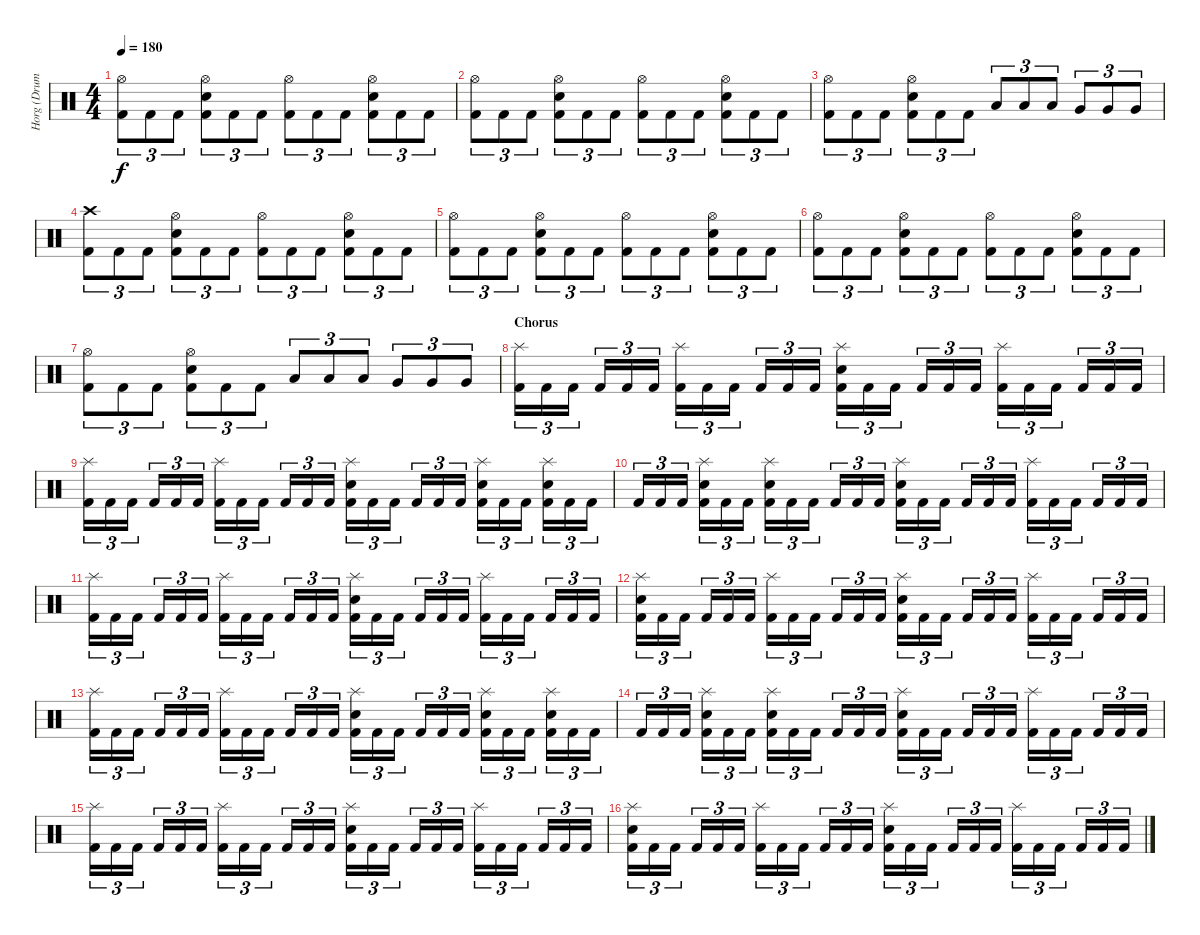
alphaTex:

\track ("Horg (Drums)" "Horg (Drum") {instrument percussion}
\staff {score}
\articulation defaults
\ts (4 4)
\tempo 180
\clef neutral
\ks c
("Hi-Hat (open)" "Kick (hit) 2").8{tu (3 2) dy f} "Kick (hit) 2".8{tu (3 2)} "Kick (hit) 2".8{tu (3 2)} ("Hi-Hat (open)" "Electric Snare (hit)" "Kick (hit) 2").8{tu (3 2)} "Kick (hit) 2".8{tu (3 2)} "Kick (hit) 2".8{tu (3 2)} ("Hi-Hat (open)" "Kick (hit) 2").8{tu (3 2)} "Kick (hit) 2".8{tu (3 2)} "Kick (hit) 2".8{tu (3 2)} ("Hi-Hat (open)" "Electric Snare (hit)" "Kick (hit) 2").8{tu (3 2)} "Kick (hit) 2".8{tu (3 2)} "Kick (hit) 2".8{tu (3 2)} |
("Hi-Hat (open)" "Kick (hit) 2").8{tu (3 2)} "Kick (hit) 2".8{tu (3 2)} "Kick (hit) 2".8{tu (3 2)} ("Hi-Hat (open)" "Electric Snare (hit)" "Kick (hit) 2").8{tu (3 2)} "Kick (hit) 2".8{tu (3 2)} "Kick (hit) 2".8{tu (3 2)} ("Hi-Hat (open)" "Kick (hit) 2").8{tu (3 2)} "Kick (hit) 2".8{tu (3 2)} "Kick (hit) 2".8{tu (3 2)} ("Hi-Hat (open)" "Electric Snare (hit)" "Kick (hit) 2").8{tu (3 2)} "Kick (hit) 2".8{tu (3 2)} "Kick (hit) 2".8{tu (3 2)} |
("Hi-Hat (open)" "Kick (hit) 2").8{tu (3 2)} "Kick (hit) 2".8{tu (3 2)} "Kick (hit) 2".8{tu (3 2)} ("Hi-Hat (open)" "Electric Snare (hit)" "Kick (hit) 2").8{tu (3 2)} "Kick (hit) 2".8{tu (3 2)} "Kick (hit) 2".8{tu (3 2)} "Low Tom (hit)".8{tu (3 2)} "Low Tom (hit)".8{tu (3 2)} "Low Tom (hit)".8{tu (3 2)} "Very Low Tom (hit)".8{tu (3 2)} "Very Low Tom (hit)".8{tu (3 2)} "Very Low Tom (hit)".8{tu (3 2)} |
("Crash high (hit)" "Kick (hit) 2").8{tu (3 2)} "Kick (hit) 2".8{tu (3 2)} "Kick (hit) 2".8{tu (3 2)} ("Hi-Hat (open)" "Electric Snare (hit)" "Kick (hit) 2").8{tu (3 2)} "Kick (hit) 2".8{tu (3 2)} "Kick (hit) 2".8{tu (3 2)} ("Hi-Hat (open)" "Kick (hit) 2").8{tu (3 2)} "Kick (hit) 2".8{tu (3 2)} "Kick (hit) 2".8{tu (3 2)} ("Hi-Hat (open)" "Electric Snare (hit)" "Kick (hit) 2").8{tu (3 2)} "Kick (hit) 2".8{tu (3 2)} "Kick (hit) 2".8{tu (3 2)} |
("Hi-Hat (open)" "Kick (hit) 2").8{tu (3 2)} "Kick (hit) 2".8{tu (3 2)} "Kick (hit) 2".8{tu (3 2)} ("Hi-Hat (open)" "Electric Snare (hit)" "Kick (hit) 2").8{tu (3 2)} "Kick (hit) 2".8{tu (3 2)} "Kick (hit) 2".8{tu (3 2)} ("Hi-Hat (open)" "Kick (hit) 2").8{tu (3 2)} "Kick (hit) 2".8{tu (3 2)} "Kick (hit) 2".8{tu (3 2)} ("Hi-Hat (open)" "Electric Snare (hit)" "Kick (hit) 2").8{tu (3 2)} "Kick (hit) 2".8{tu (3 2)} "Kick (hit) 2".8{tu (3 2)} |
("Hi-Hat (open)" "Kick (hit) 2").8{tu (3 2)} "Kick (hit) 2".8{tu (3 2)} "Kick (hit) 2".8{tu (3 2)} ("Hi-Hat (open)" "Electric Snare (hit)" "Kick (hit) 2").8{tu (3 2)} "Kick (hit) 2".8{tu (3 2)} "Kick (hit) 2".8{tu (3 2)} ("Hi-Hat (open)" "Kick (hit) 2").8{tu (3 2)} "Kick (hit) 2".8{tu (3 2)} "Kick (hit) 2".8{tu (3 2)} ("Hi-Hat (open)" "Electric Snare (hit)" "Kick (hit) 2").8{tu (3 2)} "Kick (hit) 2".8{tu (3 2)} "Kick (hit) 2".8{tu (3 2)} |
("Hi-Hat (open)" "Kick (hit) 2").8{tu (3 2)} "Kick (hit) 2".8{tu (3 2)} "Kick (hit) 2".8{tu (3 2)} ("Hi-Hat (open)" "Electric Snare (hit)" "Kick (hit) 2").8{tu (3 2)} "Kick (hit) 2".8{tu (3 2)} "Kick (hit) 2".8{tu (3 2)} "Low Tom (hit)".8{tu (3 2)} "Low Tom (hit)".8{tu (3 2)} "Low Tom (hit)".8{tu (3 2)} "Very Low Tom (hit)".8{tu (3 2)} "Very Low Tom (hit)".8{tu (3 2)} "Very Low Tom (hit)".8{tu (3 2)} |
\section ("" "Chorus")
("Splash (hit)" "Kick (hit) 2").16{tu (3 2)} "Kick (hit) 2".16{tu (3 2)} "Kick (hit) 2".16{tu (3 2)} "Kick (hit) 2".16{tu (3 2)} "Kick (hit) 2".16{tu (3 2)} "Kick (hit) 2".16{tu (3 2)} ("Splash (hit)" "Kick (hit) 2").16{tu (3 2)} "Kick (hit) 2".16{tu (3 2)} "Kick (hit) 2".16{tu (3 2)} "Kick (hit) 2".16{tu (3 2)} "Kick (hit) 2".16{tu (3 2)} "Kick (hit) 2".16{tu (3 2)} ("Splash (hit)" "Electric Snare (hit)" "Kick (hit) 2").16{tu (3 2)} "Kick (hit) 2".16{tu (3 2)} "Kick (hit) 2".16{tu (3 2)} "Kick (hit) 2".16{tu (3 2)} "Kick (hit) 2".16{tu (3 2)} "Kick (hit) 2".16{tu (3 2)} ("Splash (hit)" "Kick (hit) 2").16{tu (3 2)} "Kick (hit) 2".16{tu (3 2)} "Kick (hit) 2".16{tu (3 2)} "Kick (hit) 2".16{tu (3 2)} "Kick (hit) 2".16{tu (3 2)} "Kick (hit) 2".16{tu (3 2)} |
("Splash (hit)" "Kick (hit) 2").16{tu (3 2)} "Kick (hit) 2".16{tu (3 2)} "Kick (hit) 2".16{tu (3 2)} "Kick (hit) 2".16{tu (3 2)} "Kick (hit) 2".16{tu (3 2)} "Kick (hit) 2".16{tu (3 2)} ("Splash (hit)" "Kick (hit) 2").16{tu (3 2)} "Kick (hit) 2".16{tu (3 2)} "Kick (hit) 2".16{tu (3 2)} "Kick (hit) 2".16{tu (3 2)} "Kick (hit) 2".16{tu (3 2)} "Kick (hit) 2".16{tu (3 2)} ("Splash (hit)" "Electric Snare (hit)" "Kick (hit) 2").16{tu (3 2)} "Kick (hit) 2".16{tu (3 2)} "Kick (hit) 2".16{tu (3 2)} "Kick (hit) 2".16{tu (3 2)} "Kick (hit) 2".16{tu (3 2)} "Kick (hit) 2".16{tu (3 2)} ("Splash (hit)" "Electric Snare (hit)" "Kick (hit) 2").16{tu (3 2)} "Kick (hit) 2".16{tu (3 2)} "Kick (hit) 2".16{tu (3 2)} ("Splash (hit)" "Electric Snare (hit)" "Kick (hit) 2").16{tu (3 2)} "Kick (hit) 2".16{tu (3 2)} "Kick (hit) 2".16{tu (3 2)} |
"Kick (hit) 2".16{tu (3 2)} "Kick (hit) 2".16{tu (3 2)} "Kick (hit) 2".16{tu (3 2)} ("Splash (hit)" "Electric Snare (hit)" "Kick (hit) 2").16{tu (3 2)} "Kick (hit) 2".16{tu (3 2)} "Kick (hit) 2".16{tu (3 2)} ("Splash (hit)" "Electric Snare (hit)" "Kick (hit) 2").16{tu (3 2)} "Kick (hit) 2".16{tu (3 2)} "Kick (hit) 2".16{tu (3 2)} "Kick (hit) 2".16{tu (3 2)} "Kick (hit) 2".16{tu (3 2)} "Kick (hit) 2".16{tu (3 2)} ("Splash (hit)" "Electric Snare (hit)" "Kick (hit) 2").16{tu (3 2)} "Kick (hit) 2".16{tu (3 2)} "Kick (hit) 2".16{tu (3 2)} "Kick (hit) 2".16{tu (3 2)} "Kick (hit) 2".16{tu (3 2)} "Kick (hit) 2".16{tu (3 2)} ("Splash (hit)" "Kick (hit) 2").16{tu (3 2)} "Kick (hit) 2".16{tu (3 2)} "Kick (hit) 2".16{tu (3 2)} "Kick (hit) 2".16{tu (3 2)} "Kick (hit) 2".16{tu (3 2)} "Kick (hit) 2".16{tu (3 2)} |
("Splash (hit)" "Kick (hit) 2").16{tu (3 2)} "Kick (hit) 2".16{tu (3 2)} "Kick (hit) 2".16{tu (3 2)} "Kick (hit) 2".16{tu (3 2)} "Kick (hit) 2".16{tu (3 2)} "Kick (hit) 2".16{tu (3 2)} ("Splash (hit)" "Kick (hit) 2").16{tu (3 2)} "Kick (hit) 2".16{tu (3 2)} "Kick (hit) 2".16{tu (3 2)} "Kick (hit) 2".16{tu (3 2)} "Kick (hit) 2".16{tu (3 2)} "Kick (hit) 2".16{tu (3 2)} ("Splash (hit)" "Electric Snare (hit)" "Kick (hit) 2").16{tu (3 2)} "Kick (hit) 2".16{tu (3 2)} "Kick (hit) 2".16{tu (3 2)} "Kick (hit) 2".16{tu (3 2)} "Kick (hit) 2".16{tu (3 2)} "Kick (hit) 2".16{tu (3 2)} ("Splash (hit)" "Kick (hit) 2").16{tu (3 2)} "Kick (hit) 2".16{tu (3 2)} "Kick (hit) 2".16{tu (3 2)} "Kick (hit) 2".16{tu (3 2)} "Kick (hit) 2".16{tu (3 2)} "Kick (hit) 2".16{tu (3 2)} |
("Splash (hit)" "Electric Snare (hit)" "Kick (hit) 2").16{tu (3 2)} "Kick (hit) 2".16{tu (3 2)} "Kick (hit) 2".16{tu (3 2)} "Kick (hit) 2".16{tu (3 2)} "Kick (hit) 2".16{tu (3 2)} "Kick (hit) 2".16{tu (3 2)} ("Splash (hit)" "Kick (hit) 2").16{tu (3 2)} "Kick (hit) 2".16{tu (3 2)} "Kick (hit) 2".16{tu (3 2)} "Kick (hit) 2".16{tu (3 2)} "Kick (hit) 2".16{tu (3 2)} "Kick (hit) 2".16{tu (3 2)} ("Splash (hit)" "Electric Snare (hit)" "Kick (hit) 2").16{tu (3 2)} "Kick (hit) 2".16{tu (3 2)} "Kick (hit) 2".16{tu (3 2)} "Kick (hit) 2".16{tu (3 2)} "Kick (hit) 2".16{tu (3 2)} "Kick (hit) 2".16{tu (3 2)} ("Splash (hit)" "Kick (hit) 2").16{tu (3 2)} "Kick (hit) 2".16{tu (3 2)} "Kick (hit) 2".16{tu (3 2)} "Kick (hit) 2".16{tu (3 2)} "Kick (hit) 2".16{tu (3 2)} "Kick (hit) 2".16{tu (3 2)} |
("Splash (hit)" "Kick (hit) 2").16{tu (3 2)} "Kick (hit) 2".16{tu (3 2)} "Kick (hit) 2".16{tu (3 2)} "Kick (hit) 2".16{tu (3 2)} "Kick (hit) 2".16{tu (3 2)} "Kick (hit) 2".16{tu (3 2)} ("Splash (hit)" "Kick (hit) 2").16{tu (3 2)} "Kick (hit) 2".16{tu (3 2)} "Kick (hit) 2".16{tu (3 2)} "Kick (hit) 2".16{tu (3 2)} "Kick (hit) 2".16{tu (3 2)} "Kick (hit) 2".16{tu (3 2)} ("Splash (hit)" "Electric Snare (hit)" "Kick (hit) 2").16{tu (3 2)} "Kick (hit) 2".16{tu (3 2)} "Kick (hit) 2".16{tu (3 2)} "Kick (hit) 2".16{tu (3 2)} "Kick (hit) 2".16{tu (3 2)} "Kick (hit) 2".16{tu (3 2)} ("Splash (hit)" "Electric Snare (hit)" "Kick (hit) 2").16{tu (3 2)} "Kick (hit) 2".16{tu (3 2)} "Kick (hit) 2".16{tu (3 2)} ("Splash (hit)" "Electric Snare (hit)" "Kick (hit) 2").16{tu (3 2)} "Kick (hit) 2".16{tu (3 2)} "Kick (hit) 2".16{tu (3 2)} |
"Kick (hit) 2".16{tu (3 2)} "Kick (hit) 2".16{tu (3 2)} "Kick (hit) 2".16{tu (3 2)} ("Splash (hit)" "Electric Snare (hit)" "Kick (hit) 2").16{tu (3 2)} "Kick (hit) 2".16{tu (3 2)} "Kick (hit) 2".16{tu (3 2)} ("Splash (hit)" "Electric Snare (hit)" "Kick (hit) 2").16{tu (3 2)} "Kick (hit) 2".16{tu (3 2)} "Kick (hit) 2".16{tu (3 2)} "Kick (hit) 2".16{tu (3 2)} "Kick (hit) 2".16{tu (3 2)} "Kick (hit) 2".16{tu (3 2)} ("Splash (hit)" "Electric Snare (hit)" "Kick (hit) 2").16{tu (3 2)} "Kick (hit) 2".16{tu (3 2)} "Kick (hit) 2".16{tu (3 2)} "Kick (hit) 2".16{tu (3 2)} "Kick (hit) 2".16{tu (3 2)} "Kick (hit) 2".16{tu (3 2)} ("Splash (hit)" "Kick (hit) 2").16{tu (3 2)} "Kick (hit) 2".16{tu (3 2)} "Kick (hit) 2".16{tu (3 2)} "Kick (hit) 2".16{tu (3 2)} "Kick (hit) 2".16{tu (3 2)} "Kick (hit) 2".16{tu (3 2)} |
("Splash (hit)" "Kick (hit) 2").16{tu (3 2)} "Kick (hit) 2".16{tu (3 2)} "Kick (hit) 2".16{tu (3 2)} "Kick (hit) 2".16{tu (3 2)} "Kick (hit) 2".16{tu (3 2)} "Kick (hit) 2".16{tu (3 2)} ("Splash (hit)" "Kick (hit) 2").16{tu (3 2)} "Kick (hit) 2".16{tu (3 2)} "Kick (hit) 2".16{tu (3 2)} "Kick (hit) 2".16{tu (3 2)} "Kick (hit) 2".16{tu (3 2)} "Kick (hit) 2".16{tu (3 2)} ("Splash (hit)" "Electric Snare (hit)" "Kick (hit) 2").16{tu (3 2)} "Kick (hit) 2".16{tu (3 2)} "Kick (hit) 2".16{tu (3 2)} "Kick (hit) 2".16{tu (3 2)} "Kick (hit) 2".16{tu (3 2)} "Kick (hit) 2".16{tu (3 2)} ("Splash (hit)" "Kick (hit) 2").16{tu (3 2)} "Kick (hit) 2".16{tu (3 2)} "Kick (hit) 2".16{tu (3 2)} "Kick (hit) 2".16{tu (3 2)} "Kick (hit) 2".16{tu (3 2)} "Kick (hit) 2".16{tu (3 2)} |
("Splash (hit)" "Electric Snare (hit)" "Kick (hit) 2").16{tu (3 2)} "Kick (hit) 2".16{tu (3 2)} "Kick (hit) 2".16{tu (3 2)} "Kick (hit) 2".16{tu (3 2)} "Kick (hit) 2".16{tu (3 2)} "Kick (hit) 2".16{tu (3 2)} ("Splash (hit)" "Kick (hit) 2").16{tu (3 2)} "Kick (hit) 2".16{tu (3 2)} "Kick (hit) 2".16{tu (3 2)} "Kick (hit) 2".16{tu (3 2)} "Kick (hit) 2".16{tu (3 2)} "Kick (hit) 2".16{tu (3 2)} ("Splash (hit)" "Electric Snare (hit)" "Kick (hit) 2").16{tu (3 2)} "Kick (hit) 2".16{tu (3 2)} "Kick (hit) 2".16{tu (3 2)} "Kick (hit) 2".16{tu (3 2)} "Kick (hit) 2".16{tu (3 2)} "Kick (hit) 2".16{tu (3 2)} ("Splash (hit)" "Kick (hit) 2").16{tu (3 2)} "Kick (hit) 2".16{tu (3 2)} "Kick (hit) 2".16{tu (3 2)} "Kick (hit) 2".16{tu (3 2)} "Kick (hit) 2".16{tu (3 2)} "Kick (hit) 2".16{tu (3 2)}
